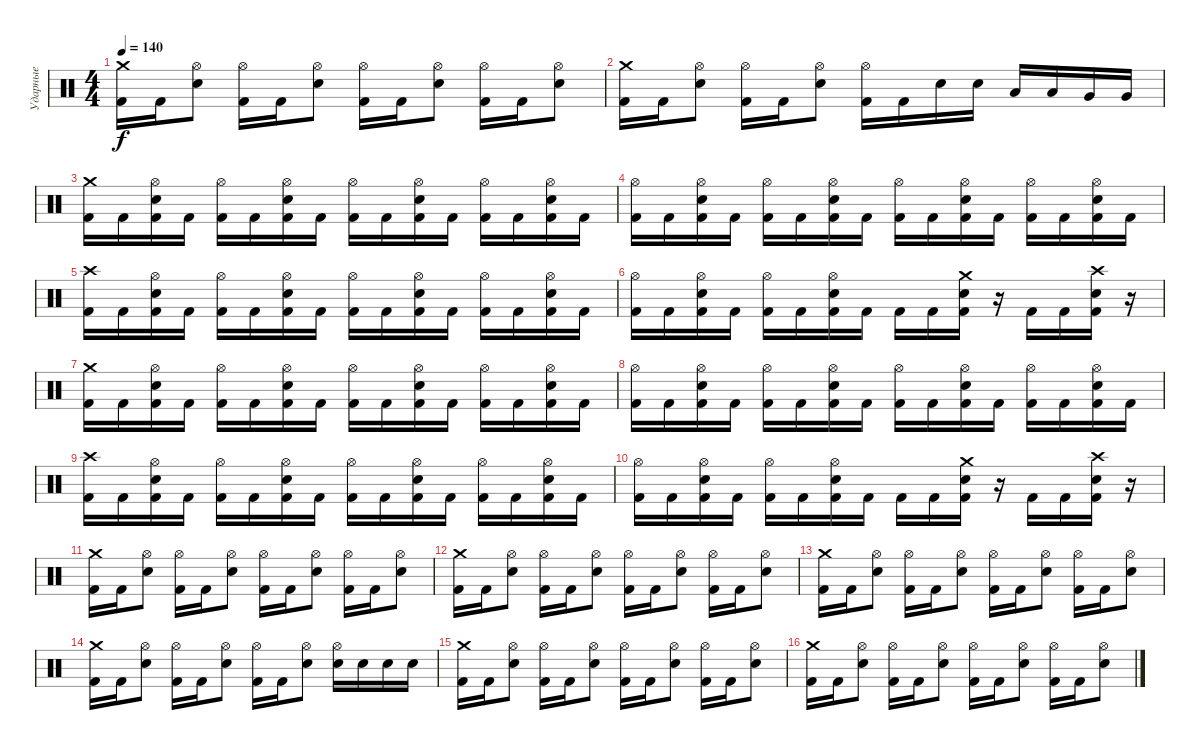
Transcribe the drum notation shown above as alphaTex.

\track ("Ударные" "Ударные") {instrument percussion}
\staff {score}
\articulation defaults
\ts (4 4)
\tempo 140
\clef neutral
\ks c
("Crash medium (hit)" "Kick (hit) 2").16{dy f} "Kick (hit) 2".16 ("Hi-Hat (open)" "Snare (hit) 2").8 ("Hi-Hat (open)" "Kick (hit) 2").16 "Kick (hit) 2".16 ("Hi-Hat (open)" "Snare (hit) 2").8 ("Hi-Hat (open)" "Kick (hit) 2").16 "Kick (hit) 2".16 ("Hi-Hat (open)" "Snare (hit) 2").8 ("Hi-Hat (open)" "Kick (hit) 2").16 "Kick (hit) 2".16 ("Hi-Hat (open)" "Snare (hit) 2").8 |
("Crash medium (hit)" "Kick (hit) 2").16 "Kick (hit) 2".16 ("Hi-Hat (open)" "Snare (hit) 2").8 ("Hi-Hat (open)" "Kick (hit) 2").16 "Kick (hit) 2".16 ("Hi-Hat (open)" "Snare (hit) 2").8 ("Hi-Hat (open)" "Kick (hit) 2").16 "Kick (hit) 2".16 "Snare (hit) 2".16 "Snare (hit) 2".16 "Low Tom (hit)".16 "Low Tom (hit)".16 "Very Low Tom (hit)".16 "Very Low Tom (hit)".16 |
("Crash medium (hit)" "Kick (hit) 2").16 "Kick (hit) 2".16 ("Hi-Hat (open)" "Snare (hit) 2" "Kick (hit) 2").16 "Kick (hit) 2".16 ("Hi-Hat (open)" "Kick (hit) 2").16 "Kick (hit) 2".16 ("Hi-Hat (open)" "Snare (hit) 2" "Kick (hit) 2").16 "Kick (hit) 2".16 ("Hi-Hat (open)" "Kick (hit) 2").16 "Kick (hit) 2".16 ("Hi-Hat (open)" "Snare (hit) 2" "Kick (hit) 2").16 "Kick (hit) 2".16 ("Hi-Hat (open)" "Kick (hit) 2").16 "Kick (hit) 2".16 ("Hi-Hat (open)" "Snare (hit) 2" "Kick (hit) 2").16 "Kick (hit) 2".16 |
("Hi-Hat (open)" "Kick (hit) 2").16 "Kick (hit) 2".16 ("Hi-Hat (open)" "Snare (hit) 2" "Kick (hit) 2").16 "Kick (hit) 2".16 ("Hi-Hat (open)" "Kick (hit) 2").16 "Kick (hit) 2".16 ("Hi-Hat (open)" "Snare (hit) 2" "Kick (hit) 2").16 "Kick (hit) 2".16 ("Hi-Hat (open)" "Kick (hit) 2").16 "Kick (hit) 2".16 ("Hi-Hat (open)" "Snare (hit) 2" "Kick (hit) 2").16 "Kick (hit) 2".16 ("Hi-Hat (open)" "Kick (hit) 2").16 "Kick (hit) 2".16 ("Hi-Hat (open)" "Snare (hit) 2" "Kick (hit) 2").16 "Kick (hit) 2".16 |
("Crash high (hit)" "Kick (hit) 2").16 "Kick (hit) 2".16 ("Hi-Hat (open)" "Snare (hit) 2" "Kick (hit) 2").16 "Kick (hit) 2".16 ("Hi-Hat (open)" "Kick (hit) 2").16 "Kick (hit) 2".16 ("Hi-Hat (open)" "Snare (hit) 2" "Kick (hit) 2").16 "Kick (hit) 2".16 ("Hi-Hat (open)" "Kick (hit) 2").16 "Kick (hit) 2".16 ("Hi-Hat (open)" "Snare (hit) 2" "Kick (hit) 2").16 "Kick (hit) 2".16 ("Hi-Hat (open)" "Kick (hit) 2").16 "Kick (hit) 2".16 ("Hi-Hat (open)" "Snare (hit) 2" "Kick (hit) 2").16 "Kick (hit) 2".16 |
("Hi-Hat (open)" "Kick (hit) 2").16 "Kick (hit) 2".16 ("Hi-Hat (open)" "Snare (hit) 2" "Kick (hit) 2").16 "Kick (hit) 2".16 ("Hi-Hat (open)" "Kick (hit) 2").16 "Kick (hit) 2".16 ("Hi-Hat (open)" "Snare (hit) 2" "Kick (hit) 2").16 "Kick (hit) 2".16 "Kick (hit) 2".16 "Kick (hit) 2".16 ("Crash medium (hit)" "Snare (hit) 2" "Kick (hit) 2").16 r.16 "Kick (hit) 2".16 "Kick (hit) 2".16 ("Crash high (hit)" "Snare (hit) 2" "Kick (hit) 2").16 r.16 |
("Crash medium (hit)" "Kick (hit) 2").16 "Kick (hit) 2".16 ("Hi-Hat (open)" "Snare (hit) 2" "Kick (hit) 2").16 "Kick (hit) 2".16 ("Hi-Hat (open)" "Kick (hit) 2").16 "Kick (hit) 2".16 ("Hi-Hat (open)" "Snare (hit) 2" "Kick (hit) 2").16 "Kick (hit) 2".16 ("Hi-Hat (open)" "Kick (hit) 2").16 "Kick (hit) 2".16 ("Hi-Hat (open)" "Snare (hit) 2" "Kick (hit) 2").16 "Kick (hit) 2".16 ("Hi-Hat (open)" "Kick (hit) 2").16 "Kick (hit) 2".16 ("Hi-Hat (open)" "Snare (hit) 2" "Kick (hit) 2").16 "Kick (hit) 2".16 |
("Hi-Hat (open)" "Kick (hit) 2").16 "Kick (hit) 2".16 ("Hi-Hat (open)" "Snare (hit) 2" "Kick (hit) 2").16 "Kick (hit) 2".16 ("Hi-Hat (open)" "Kick (hit) 2").16 "Kick (hit) 2".16 ("Hi-Hat (open)" "Snare (hit) 2" "Kick (hit) 2").16 "Kick (hit) 2".16 ("Hi-Hat (open)" "Kick (hit) 2").16 "Kick (hit) 2".16 ("Hi-Hat (open)" "Snare (hit) 2" "Kick (hit) 2").16 "Kick (hit) 2".16 ("Hi-Hat (open)" "Kick (hit) 2").16 "Kick (hit) 2".16 ("Hi-Hat (open)" "Snare (hit) 2" "Kick (hit) 2").16 "Kick (hit) 2".16 |
("Crash high (hit)" "Kick (hit) 2").16 "Kick (hit) 2".16 ("Hi-Hat (open)" "Snare (hit) 2" "Kick (hit) 2").16 "Kick (hit) 2".16 ("Hi-Hat (open)" "Kick (hit) 2").16 "Kick (hit) 2".16 ("Hi-Hat (open)" "Snare (hit) 2" "Kick (hit) 2").16 "Kick (hit) 2".16 ("Hi-Hat (open)" "Kick (hit) 2").16 "Kick (hit) 2".16 ("Hi-Hat (open)" "Snare (hit) 2" "Kick (hit) 2").16 "Kick (hit) 2".16 ("Hi-Hat (open)" "Kick (hit) 2").16 "Kick (hit) 2".16 ("Hi-Hat (open)" "Snare (hit) 2" "Kick (hit) 2").16 "Kick (hit) 2".16 |
("Hi-Hat (open)" "Kick (hit) 2").16 "Kick (hit) 2".16 ("Hi-Hat (open)" "Snare (hit) 2" "Kick (hit) 2").16 "Kick (hit) 2".16 ("Hi-Hat (open)" "Kick (hit) 2").16 "Kick (hit) 2".16 ("Hi-Hat (open)" "Snare (hit) 2" "Kick (hit) 2").16 "Kick (hit) 2".16 "Kick (hit) 2".16 "Kick (hit) 2".16 ("Crash medium (hit)" "Snare (hit) 2" "Kick (hit) 2").16 r.16 "Kick (hit) 2".16 "Kick (hit) 2".16 ("Crash high (hit)" "Snare (hit) 2" "Kick (hit) 2").16 r.16 |
("Crash medium (hit)" "Kick (hit) 2").16 "Kick (hit) 2".16 ("Hi-Hat (open)" "Snare (hit) 2").8 ("Hi-Hat (open)" "Kick (hit) 2").16 "Kick (hit) 2".16 ("Hi-Hat (open)" "Snare (hit) 2").8 ("Hi-Hat (open)" "Kick (hit) 2").16 "Kick (hit) 2".16 ("Hi-Hat (open)" "Snare (hit) 2").8 ("Hi-Hat (open)" "Kick (hit) 2").16 "Kick (hit) 2".16 ("Hi-Hat (open)" "Snare (hit) 2").8 |
("Crash medium (hit)" "Kick (hit) 2").16 "Kick (hit) 2".16 ("Hi-Hat (open)" "Snare (hit) 2").8 ("Hi-Hat (open)" "Kick (hit) 2").16 "Kick (hit) 2".16 ("Hi-Hat (open)" "Snare (hit) 2").8 ("Hi-Hat (open)" "Kick (hit) 2").16 "Kick (hit) 2".16 ("Hi-Hat (open)" "Snare (hit) 2").8 ("Hi-Hat (open)" "Kick (hit) 2").16 "Kick (hit) 2".16 ("Hi-Hat (open)" "Snare (hit) 2").8 |
("Crash medium (hit)" "Kick (hit) 2").16 "Kick (hit) 2".16 ("Hi-Hat (open)" "Snare (hit) 2").8 ("Hi-Hat (open)" "Kick (hit) 2").16 "Kick (hit) 2".16 ("Hi-Hat (open)" "Snare (hit) 2").8 ("Hi-Hat (open)" "Kick (hit) 2").16 "Kick (hit) 2".16 ("Hi-Hat (open)" "Snare (hit) 2").8 ("Hi-Hat (open)" "Kick (hit) 2").16 "Kick (hit) 2".16 ("Hi-Hat (open)" "Snare (hit) 2").8 |
("Crash medium (hit)" "Kick (hit) 2").16 "Kick (hit) 2".16 ("Hi-Hat (open)" "Snare (hit) 2").8 ("Hi-Hat (open)" "Kick (hit) 2").16 "Kick (hit) 2".16 ("Hi-Hat (open)" "Snare (hit) 2").8 ("Hi-Hat (open)" "Kick (hit) 2").16 "Kick (hit) 2".16 ("Hi-Hat (open)" "Snare (hit) 2").8 ("Hi-Hat (open)" "Snare (hit) 2").16 "Snare (hit) 2".16 "Snare (hit) 2".16 "Snare (hit) 2".16 |
("Crash medium (hit)" "Kick (hit) 2").16 "Kick (hit) 2".16 ("Hi-Hat (open)" "Snare (hit) 2").8 ("Hi-Hat (open)" "Kick (hit) 2").16 "Kick (hit) 2".16 ("Hi-Hat (open)" "Snare (hit) 2").8 ("Hi-Hat (open)" "Kick (hit) 2").16 "Kick (hit) 2".16 ("Hi-Hat (open)" "Snare (hit) 2").8 ("Hi-Hat (open)" "Kick (hit) 2").16 "Kick (hit) 2".16 ("Hi-Hat (open)" "Snare (hit) 2").8 |
("Crash medium (hit)" "Kick (hit) 2").16 "Kick (hit) 2".16 ("Hi-Hat (open)" "Snare (hit) 2").8 ("Hi-Hat (open)" "Kick (hit) 2").16 "Kick (hit) 2".16 ("Hi-Hat (open)" "Snare (hit) 2").8 ("Hi-Hat (open)" "Kick (hit) 2").16 "Kick (hit) 2".16 ("Hi-Hat (open)" "Snare (hit) 2").8 ("Hi-Hat (open)" "Kick (hit) 2").16 "Kick (hit) 2".16 ("Hi-Hat (open)" "Snare (hit) 2").8
